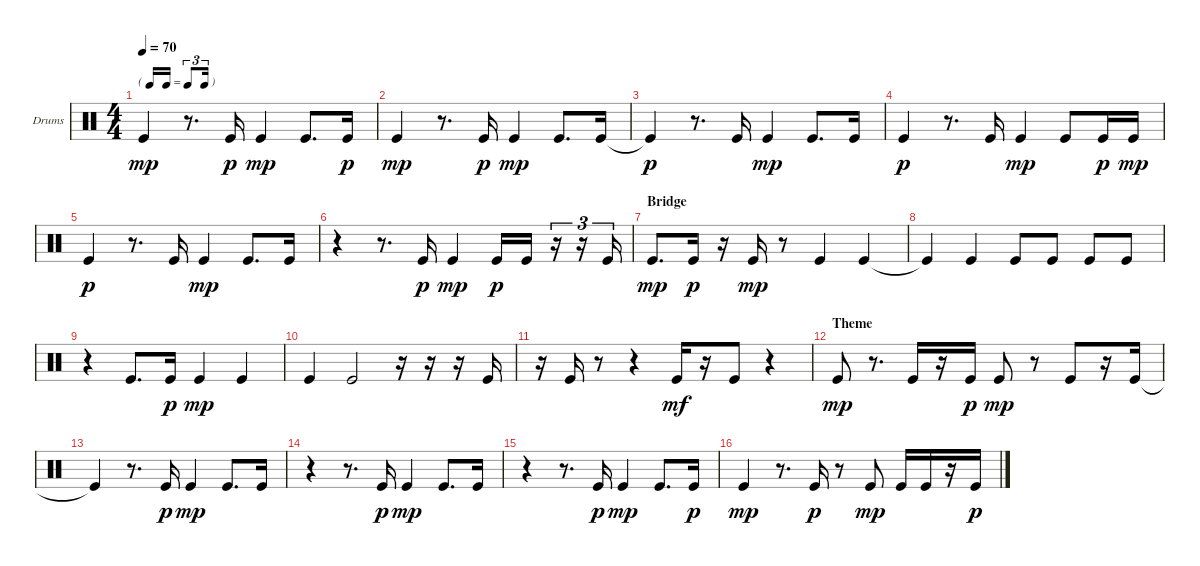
\bracketExtendMode groupsimilarinstruments
\firstSystemTrackNameOrientation horizontal
\otherSystemsTrackNameOrientation horizontal
\track ("Kick" "Drums") {instrument percussion}
\staff {score}
\articulation defaults
\ts (4 4)
\tf triplet16th
\tempo 70
\clef neutral
\ks aminor "Kick (hit)".4{dy mp}
r.8{d} "Kick (hit)".16{dy p} "Kick (hit)".4{dy mp} "Kick (hit)".8{d} "Kick (hit)".16{dy p} |
"Kick (hit)".4{dy mp} r.8{d} "Kick (hit)".16{dy p} "Kick (hit)".4{dy mp} "Kick (hit)".8{d} "Kick (hit)".16 |
"Kick (hit)"{t}.4{dy p} r.8{d} "Kick (hit)".16 "Kick (hit)".4{dy mp} "Kick (hit)".8{d} "Kick (hit)".16 |
"Kick (hit)".4{dy p} r.8{d} "Kick (hit)".16 "Kick (hit)".4{dy mp} "Kick (hit)".8 "Kick (hit)".16{dy p} "Kick (hit)".16{dy mp} |
"Kick (hit)".4{dy p} r.8{d} "Kick (hit)".16 "Kick (hit)".4{dy mp} "Kick (hit)".8{d} "Kick (hit)".16 |
r.4 r.8{d} "Kick (hit)".16{dy p} "Kick (hit)".4{dy mp} "Kick (hit)".16{dy p} "Kick (hit)".16 r.16{tu (3 2)} r.16{tu (3 2)} "Kick (hit)".16{tu (3 2)} |
\section ("" "Bridge")
"Kick (hit)".8{d dy mp} "Kick (hit)".16{dy p} r.16 "Kick (hit)".16{dy mp} r.8 "Kick (hit)".4 "Kick (hit)".4 |
"Kick (hit)"{t}.4 "Kick (hit)".4 "Kick (hit)".8 "Kick (hit)".8 "Kick (hit)".8 "Kick (hit)".8 |
r.4 "Kick (hit)".8{d} "Kick (hit)".16{dy p} "Kick (hit)".4{dy mp} "Kick (hit)".4 |
"Kick (hit)".4 "Kick (hit)".2 r.16 r.16 r.16 "Kick (hit)".16 |
r.16 "Kick (hit)".16 r.8 r.4 "Kick (hit)".16{dy mf} r.16 "Kick (hit)".8 r.4 |
\section ("" "Theme")
"Kick (hit)".8{dy mp} r.8{d} "Kick (hit)".16 r.16 "Kick (hit)".16{dy p} "Kick (hit)".8{dy mp} r.8 "Kick (hit)".8 r.16 "Kick (hit)".16 |
"Kick (hit)"{t}.4 r.8{d} "Kick (hit)".16{dy p} "Kick (hit)".4{dy mp} "Kick (hit)".8{d} "Kick (hit)".16 |
r.4 r.8{d} "Kick (hit)".16{dy p} "Kick (hit)".4{dy mp} "Kick (hit)".8{d} "Kick (hit)".16 |
r.4 r.8{d} "Kick (hit)".16{dy p} "Kick (hit)".4{dy mp} "Kick (hit)".8{d} "Kick (hit)".16{dy p} |
"Kick (hit)".4{dy mp} r.8{d} "Kick (hit)".16{dy p} r.8 "Kick (hit)".8{dy mp} "Kick (hit)".16 "Kick (hit)".16 r.16 "Kick (hit)".16{dy p}
